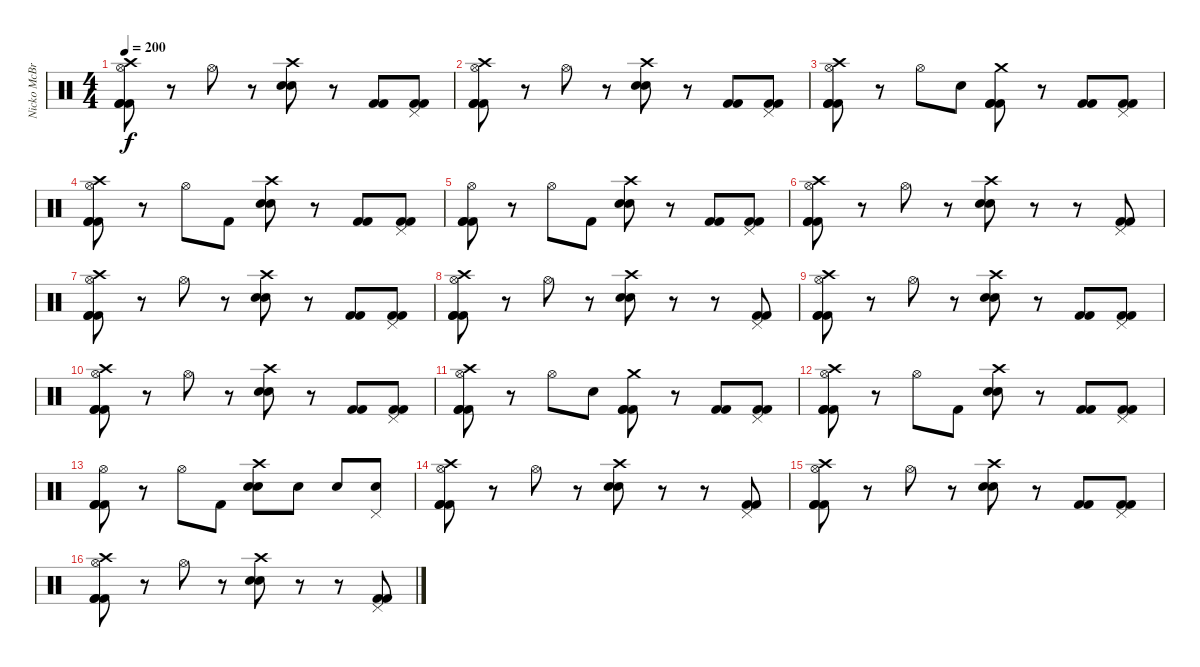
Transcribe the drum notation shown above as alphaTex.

\track ("Nicko McBrain" "Nicko McBr") {instrument percussion}
\staff {score}
\articulation defaults
\ts (4 4)
\tempo 200
\clef neutral
\ks c
("Crash high (hit)" "Hi-Hat (open)" "Kick (hit) 2" "Kick (hit) 2" "Kick (hit) 2").8{dy f} r.8 "Hi-Hat (open)".8 r.8 ("Crash high (hit)" "Snare (hit) 2" "Snare (hit) 2").8 r.8 ("Kick (hit) 2" "Kick (hit) 2").8 ("Pedal Hi-Hat (hit)" "Kick (hit) 2" "Kick (hit) 2").8 |
("Crash high (hit)" "Hi-Hat (open)" "Kick (hit) 2" "Kick (hit) 2" "Kick (hit) 2").8 r.8 "Hi-Hat (open)".8 r.8 ("Crash high (hit)" "Snare (hit) 2" "Snare (hit) 2").8 r.8 ("Kick (hit) 2" "Kick (hit) 2").8 ("Pedal Hi-Hat (hit)" "Kick (hit) 2" "Kick (hit) 2").8 |
("Crash high (hit)" "Hi-Hat (open)" "Kick (hit) 2" "Kick (hit) 2" "Kick (hit) 2").8 r.8 "Hi-Hat (open)".8 "Snare (hit) 2".8 ("Crash medium (hit)" "Kick (hit) 2" "Kick (hit) 2" "Kick (hit) 2").8 r.8 ("Kick (hit) 2" "Kick (hit) 2").8 ("Pedal Hi-Hat (hit)" "Kick (hit) 2" "Kick (hit) 2").8 |
("Crash high (hit)" "Hi-Hat (open)" "Kick (hit) 2" "Kick (hit) 2" "Kick (hit) 2").8 r.8 "Hi-Hat (open)".8 "Kick (hit) 2".8 ("Crash high (hit)" "Snare (hit) 2" "Snare (hit) 2").8 r.8 ("Kick (hit) 2" "Kick (hit) 2").8 ("Pedal Hi-Hat (hit)" "Kick (hit) 2" "Kick (hit) 2").8 |
("Hi-Hat (open)" "Kick (hit) 2" "Kick (hit) 2" "Kick (hit) 2").8 r.8 "Hi-Hat (open)".8 "Kick (hit) 2".8 ("Crash high (hit)" "Snare (hit) 2" "Snare (hit) 2").8 r.8 ("Kick (hit) 2" "Kick (hit) 2").8 ("Pedal Hi-Hat (hit)" "Kick (hit) 2" "Kick (hit) 2").8 |
("Crash high (hit)" "Hi-Hat (open)" "Kick (hit) 2" "Kick (hit) 2" "Kick (hit) 2").8 r.8 "Hi-Hat (open)".8 r.8 ("Crash high (hit)" "Snare (hit) 2" "Snare (hit) 2").8 r.8 r.8 ("Pedal Hi-Hat (hit)" "Kick (hit) 2" "Kick (hit) 2").8 |
("Crash high (hit)" "Hi-Hat (open)" "Kick (hit) 2" "Kick (hit) 2" "Kick (hit) 2").8 r.8 "Hi-Hat (open)".8 r.8 ("Crash high (hit)" "Snare (hit) 2" "Snare (hit) 2").8 r.8 ("Kick (hit) 2" "Kick (hit) 2").8 ("Pedal Hi-Hat (hit)" "Kick (hit) 2" "Kick (hit) 2").8 |
("Crash high (hit)" "Hi-Hat (open)" "Kick (hit) 2" "Kick (hit) 2" "Kick (hit) 2").8 r.8 "Hi-Hat (open)".8 r.8 ("Crash high (hit)" "Snare (hit) 2" "Snare (hit) 2").8 r.8 r.8 ("Pedal Hi-Hat (hit)" "Kick (hit) 2" "Kick (hit) 2").8 |
("Crash high (hit)" "Hi-Hat (open)" "Kick (hit) 2" "Kick (hit) 2" "Kick (hit) 2").8 r.8 "Hi-Hat (open)".8 r.8 ("Crash high (hit)" "Snare (hit) 2" "Snare (hit) 2").8 r.8 ("Kick (hit) 2" "Kick (hit) 2").8 ("Pedal Hi-Hat (hit)" "Kick (hit) 2" "Kick (hit) 2").8 |
("Crash high (hit)" "Hi-Hat (open)" "Kick (hit) 2" "Kick (hit) 2" "Kick (hit) 2").8 r.8 "Hi-Hat (open)".8 r.8 ("Crash high (hit)" "Snare (hit) 2" "Snare (hit) 2").8 r.8 ("Kick (hit) 2" "Kick (hit) 2").8 ("Pedal Hi-Hat (hit)" "Kick (hit) 2" "Kick (hit) 2").8 |
("Crash high (hit)" "Hi-Hat (open)" "Kick (hit) 2" "Kick (hit) 2" "Kick (hit) 2").8 r.8 "Hi-Hat (open)".8 "Snare (hit) 2".8 ("Crash medium (hit)" "Kick (hit) 2" "Kick (hit) 2" "Kick (hit) 2").8 r.8 ("Kick (hit) 2" "Kick (hit) 2").8 ("Pedal Hi-Hat (hit)" "Kick (hit) 2" "Kick (hit) 2").8 |
("Crash high (hit)" "Hi-Hat (open)" "Kick (hit) 2" "Kick (hit) 2" "Kick (hit) 2").8 r.8 "Hi-Hat (open)".8 "Kick (hit) 2".8 ("Crash high (hit)" "Snare (hit) 2" "Snare (hit) 2").8 r.8 ("Kick (hit) 2" "Kick (hit) 2").8 ("Pedal Hi-Hat (hit)" "Kick (hit) 2" "Kick (hit) 2").8 |
("Hi-Hat (open)" "Kick (hit) 2" "Kick (hit) 2" "Kick (hit) 2").8 r.8 "Hi-Hat (open)".8 "Kick (hit) 2".8 ("Crash high (hit)" "Snare (hit) 2" "Snare (hit) 2").8 "Snare (hit) 2".8 "Snare (hit) 2".8 ("Pedal Hi-Hat (hit)" "Snare (hit) 2").8 |
("Crash high (hit)" "Hi-Hat (open)" "Kick (hit) 2" "Kick (hit) 2" "Kick (hit) 2").8 r.8 "Hi-Hat (open)".8 r.8 ("Crash high (hit)" "Snare (hit) 2" "Snare (hit) 2").8 r.8 r.8 ("Pedal Hi-Hat (hit)" "Kick (hit) 2" "Kick (hit) 2").8 |
("Crash high (hit)" "Hi-Hat (open)" "Kick (hit) 2" "Kick (hit) 2" "Kick (hit) 2").8 r.8 "Hi-Hat (open)".8 r.8 ("Crash high (hit)" "Snare (hit) 2" "Snare (hit) 2").8 r.8 ("Kick (hit) 2" "Kick (hit) 2").8 ("Pedal Hi-Hat (hit)" "Kick (hit) 2" "Kick (hit) 2").8 |
("Crash high (hit)" "Hi-Hat (open)" "Kick (hit) 2" "Kick (hit) 2" "Kick (hit) 2").8 r.8 "Hi-Hat (open)".8 r.8 ("Crash high (hit)" "Snare (hit) 2" "Snare (hit) 2").8 r.8 r.8 ("Pedal Hi-Hat (hit)" "Kick (hit) 2" "Kick (hit) 2").8
